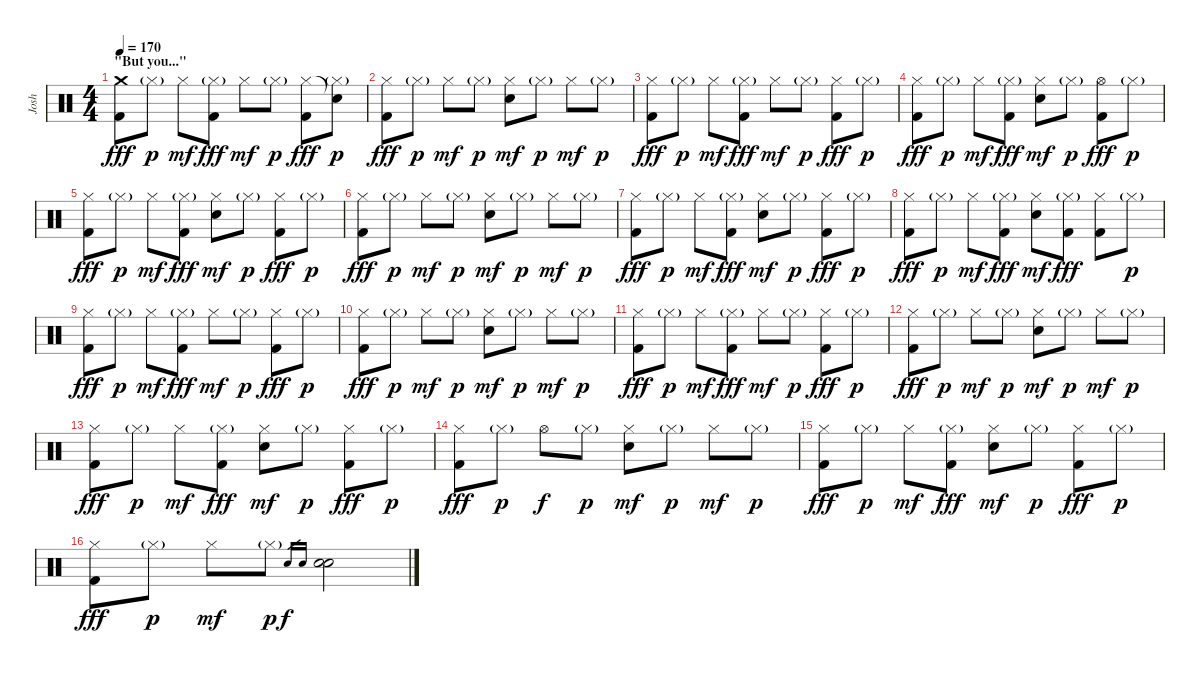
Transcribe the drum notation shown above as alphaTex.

\track ("Josh" "Josh") {instrument percussion}
\staff {score}
\articulation defaults
\ts (4 4)
\section ("" "\"But you...\"")
\tempo 170
\clef neutral
\ks c
("Crash medium (hit)" "Kick (hit) 2").8{dy fff} "Hi-Hat (closed)"{g}.8{dy p} "Hi-Hat (closed)".8{dy mf} ("Hi-Hat (closed)"{g} "Kick (hit) 2").8{dy fff} "Hi-Hat (closed)".8{dy mf} "Hi-Hat (closed)"{g}.8{dy p} ("Hi-Hat (closed)" "Kick (hit) 2").8{dy fff} ("Snare (hit)"{t} "Hi-Hat (closed)"{g}).8{dy p} |
("Hi-Hat (closed)" "Kick (hit) 2").8{dy fff} "Hi-Hat (closed)"{g}.8{dy p} "Hi-Hat (closed)".8{dy mf} "Hi-Hat (closed)"{g}.8{dy p} ("Hi-Hat (closed)" "Electric Snare (hit)").8{dy mf} "Hi-Hat (closed)"{g}.8{dy p} "Hi-Hat (closed)".8{dy mf} "Hi-Hat (closed)"{g}.8{dy p} |
("Hi-Hat (closed)" "Kick (hit) 2").8{dy fff} "Hi-Hat (closed)"{g}.8{dy p} "Hi-Hat (closed)".8{dy mf} ("Hi-Hat (closed)"{g} "Kick (hit) 2").8{dy fff} "Hi-Hat (closed)".8{dy mf} "Hi-Hat (closed)"{g}.8{dy p} ("Hi-Hat (closed)" "Kick (hit) 2").8{dy fff} "Hi-Hat (closed)"{g}.8{dy p} |
("Hi-Hat (closed)" "Kick (hit) 2").8{dy fff} "Hi-Hat (closed)"{g}.8{dy p} "Hi-Hat (closed)".8{dy mf} ("Hi-Hat (closed)"{g} "Kick (hit) 2").8{dy fff} ("Hi-Hat (closed)" "Electric Snare (hit)").8{dy mf} "Hi-Hat (closed)"{g}.8{dy p} ("Hi-Hat (open)" "Kick (hit) 2").8{dy fff} "Hi-Hat (closed)"{g}.8{dy p} |
("Hi-Hat (closed)" "Kick (hit) 2").8{dy fff} "Hi-Hat (closed)"{g}.8{dy p} "Hi-Hat (closed)".8{dy mf} ("Hi-Hat (closed)"{g} "Kick (hit) 2").8{dy fff} ("Hi-Hat (closed)" "Electric Snare (hit)").8{dy mf} "Hi-Hat (closed)"{g}.8{dy p} ("Hi-Hat (closed)" "Kick (hit) 2").8{dy fff} "Hi-Hat (closed)"{g}.8{dy p} |
("Hi-Hat (closed)" "Kick (hit) 2").8{dy fff} "Hi-Hat (closed)"{g}.8{dy p} "Hi-Hat (closed)".8{dy mf} "Hi-Hat (closed)"{g}.8{dy p} ("Hi-Hat (closed)" "Electric Snare (hit)").8{dy mf} "Hi-Hat (closed)"{g}.8{dy p} "Hi-Hat (closed)".8{dy mf} "Hi-Hat (closed)"{g}.8{dy p} |
("Hi-Hat (closed)" "Kick (hit) 2").8{dy fff} "Hi-Hat (closed)"{g}.8{dy p} "Hi-Hat (closed)".8{dy mf} ("Hi-Hat (closed)"{g} "Kick (hit) 2").8{dy fff} ("Hi-Hat (closed)" "Electric Snare (hit)").8{dy mf} "Hi-Hat (closed)"{g}.8{dy p} ("Hi-Hat (closed)" "Kick (hit) 2").8{dy fff} "Hi-Hat (closed)"{g}.8{dy p} |
("Hi-Hat (closed)" "Kick (hit) 2").8{dy fff} "Hi-Hat (closed)"{g}.8{dy p} "Hi-Hat (closed)".8{dy mf} ("Hi-Hat (closed)"{g} "Kick (hit) 2").8{dy fff} ("Hi-Hat (closed)" "Electric Snare (hit)").8{dy mf} ("Hi-Hat (closed)"{g} "Kick (hit) 2").8{dy fff} ("Hi-Hat (closed)" "Kick (hit) 2").8 "Hi-Hat (closed)"{g}.8{dy p} |
("Hi-Hat (closed)" "Kick (hit) 2").8{dy fff} "Hi-Hat (closed)"{g}.8{dy p} "Hi-Hat (closed)".8{dy mf} ("Hi-Hat (closed)"{g} "Kick (hit) 2").8{dy fff} "Hi-Hat (closed)".8{dy mf} "Hi-Hat (closed)"{g}.8{dy p} ("Hi-Hat (closed)" "Kick (hit) 2").8{dy fff} "Hi-Hat (closed)"{g}.8{dy p} |
("Hi-Hat (closed)" "Kick (hit) 2").8{dy fff} "Hi-Hat (closed)"{g}.8{dy p} "Hi-Hat (closed)".8{dy mf} "Hi-Hat (closed)"{g}.8{dy p} ("Hi-Hat (closed)" "Electric Snare (hit)").8{dy mf} "Hi-Hat (closed)"{g}.8{dy p} "Hi-Hat (closed)".8{dy mf} "Hi-Hat (closed)"{g}.8{dy p} |
("Hi-Hat (closed)" "Kick (hit) 2").8{dy fff} "Hi-Hat (closed)"{g}.8{dy p} "Hi-Hat (closed)".8{dy mf} ("Hi-Hat (closed)"{g} "Kick (hit) 2").8{dy fff} "Hi-Hat (closed)".8{dy mf} "Hi-Hat (closed)"{g}.8{dy p} ("Hi-Hat (closed)" "Kick (hit) 2").8{dy fff} "Hi-Hat (closed)"{g}.8{dy p} |
("Hi-Hat (closed)" "Kick (hit) 2").8{dy fff} "Hi-Hat (closed)"{g}.8{dy p} "Hi-Hat (closed)".8{dy mf} "Hi-Hat (closed)"{g}.8{dy p} ("Hi-Hat (closed)" "Electric Snare (hit)").8{dy mf} "Hi-Hat (closed)"{g}.8{dy p} "Hi-Hat (closed)".8{dy mf} "Hi-Hat (closed)"{g}.8{dy p} |
("Hi-Hat (closed)" "Kick (hit) 2").8{dy fff} "Hi-Hat (closed)"{g}.8{dy p} "Hi-Hat (closed)".8{dy mf} ("Hi-Hat (closed)"{g} "Kick (hit) 2").8{dy fff} ("Hi-Hat (closed)" "Electric Snare (hit)").8{dy mf} "Hi-Hat (closed)"{g}.8{dy p} ("Hi-Hat (closed)" "Kick (hit) 2").8{dy fff} "Hi-Hat (closed)"{g}.8{dy p} |
("Hi-Hat (closed)" "Kick (hit) 2").8{dy fff} "Hi-Hat (closed)"{g}.8{dy p} "Hi-Hat (open)".8{dy f} "Hi-Hat (closed)"{g}.8{dy p} ("Hi-Hat (closed)" "Electric Snare (hit)").8{dy mf} "Hi-Hat (closed)"{g}.8{dy p} "Hi-Hat (closed)".8{dy mf} "Hi-Hat (closed)"{g}.8{dy p} |
("Hi-Hat (closed)" "Kick (hit) 2").8{dy fff} "Hi-Hat (closed)"{g}.8{dy p} "Hi-Hat (closed)".8{dy mf} ("Hi-Hat (closed)"{g} "Kick (hit) 2").8{dy fff} ("Hi-Hat (closed)" "Electric Snare (hit)").8{dy mf} "Hi-Hat (closed)"{g}.8{dy p} ("Hi-Hat (closed)" "Kick (hit) 2").8{dy fff} "Hi-Hat (closed)"{g}.8{dy p} |
("Hi-Hat (closed)" "Kick (hit) 2").8{dy fff} "Hi-Hat (closed)"{g}.8{dy p} "Hi-Hat (closed)".8{dy mf} "Hi-Hat (closed)"{g}.8{dy p} "Electric Snare (hit)".16{gr dy f} "Electric Snare (hit)".16{gr} ("Electric Snare (hit)" "Electric Snare (hit)").2
